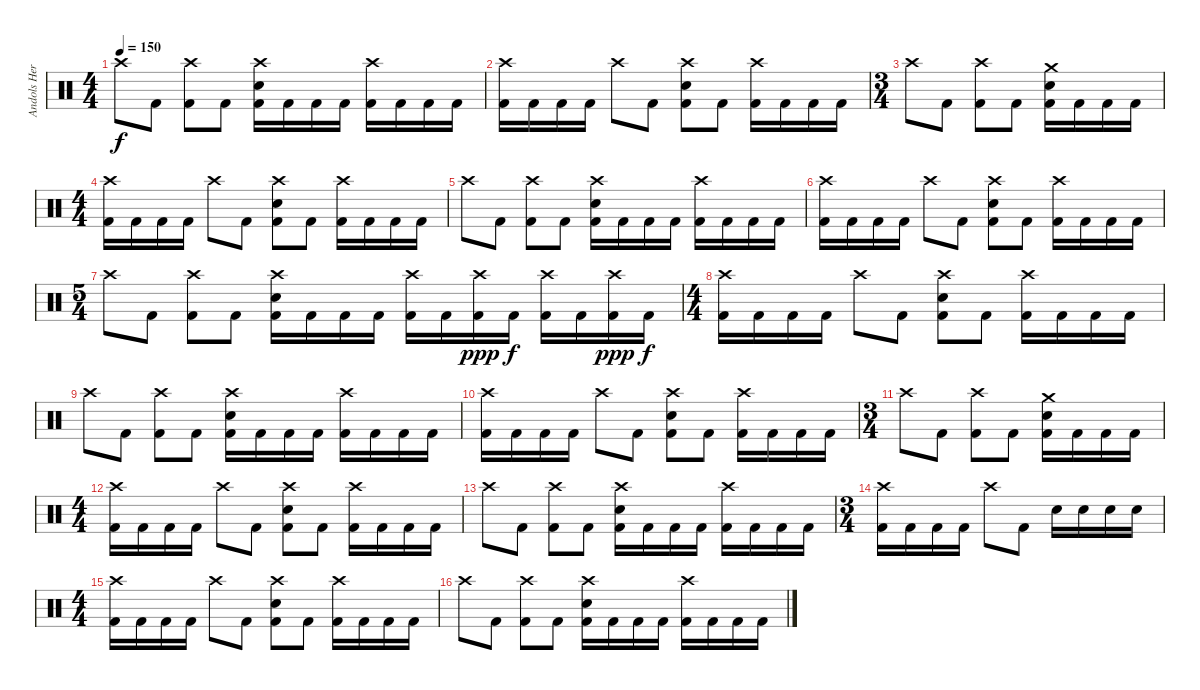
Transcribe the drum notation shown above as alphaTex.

\track ("Andols Herrick" "Andols Her") {instrument percussion}
\staff {score}
\articulation defaults
\ts (4 4)
\tempo 150
\clef neutral
\ks c "Crash high (hit)".8{dy f} "Kick (hit) 2".8
("Crash high (hit)" "Kick (hit) 2").8 "Kick (hit) 2".8 ("Crash high (hit)" "Electric Snare (hit)" "Kick (hit) 2").16 "Kick (hit) 2".16 "Kick (hit) 2".16 "Kick (hit) 2".16 ("Crash high (hit)" "Kick (hit) 2").16 "Kick (hit) 2".16 "Kick (hit) 2".16 "Kick (hit) 2".16 |
("Crash high (hit)" "Kick (hit) 2").16 "Kick (hit) 2".16 "Kick (hit) 2".16 "Kick (hit) 2".16 "Crash high (hit)".8 "Kick (hit) 2".8 ("Crash high (hit)" "Electric Snare (hit)" "Kick (hit) 2").8 "Kick (hit) 2".8 ("Crash high (hit)" "Kick (hit) 2").16 "Kick (hit) 2".16 "Kick (hit) 2".16 "Kick (hit) 2".16 |
\ts (3 4)
"Crash high (hit)".8 "Kick (hit) 2".8 ("Crash high (hit)" "Kick (hit) 2").8 "Kick (hit) 2".8 ("Crash medium (hit)" "Electric Snare (hit)" "Kick (hit) 2").16 "Kick (hit) 2".16 "Kick (hit) 2".16 "Kick (hit) 2".16 |
\ts (4 4)
("Crash high (hit)" "Kick (hit) 2").16 "Kick (hit) 2".16 "Kick (hit) 2".16 "Kick (hit) 2".16 "Crash high (hit)".8 "Kick (hit) 2".8 ("Crash high (hit)" "Electric Snare (hit)" "Kick (hit) 2").8 "Kick (hit) 2".8 ("Crash high (hit)" "Kick (hit) 2").16 "Kick (hit) 2".16 "Kick (hit) 2".16 "Kick (hit) 2".16 |
"Crash high (hit)".8 "Kick (hit) 2".8 ("Crash high (hit)" "Kick (hit) 2").8 "Kick (hit) 2".8 ("Crash high (hit)" "Electric Snare (hit)" "Kick (hit) 2").16 "Kick (hit) 2".16 "Kick (hit) 2".16 "Kick (hit) 2".16 ("Crash high (hit)" "Kick (hit) 2").16 "Kick (hit) 2".16 "Kick (hit) 2".16 "Kick (hit) 2".16 |
("Crash high (hit)" "Kick (hit) 2").16 "Kick (hit) 2".16 "Kick (hit) 2".16 "Kick (hit) 2".16 "Crash high (hit)".8 "Kick (hit) 2".8 ("Crash high (hit)" "Electric Snare (hit)" "Kick (hit) 2").8 "Kick (hit) 2".8 ("Crash high (hit)" "Kick (hit) 2").16 "Kick (hit) 2".16 "Kick (hit) 2".16 "Kick (hit) 2".16 |
\ts (5 4)
"Crash high (hit)".8 "Kick (hit) 2".8 ("Crash high (hit)" "Kick (hit) 2").8 "Kick (hit) 2".8 ("Crash high (hit)" "Electric Snare (hit)" "Kick (hit) 2").16 "Kick (hit) 2".16 "Kick (hit) 2".16 "Kick (hit) 2".16 ("Crash high (hit)" "Kick (hit) 2").16 "Kick (hit) 2".16 ("Crash high (hit)" "Kick (hit) 2").16{dy ppp} "Kick (hit) 2".16{dy f} ("Crash high (hit)" "Kick (hit) 2").16 "Kick (hit) 2".16 ("Crash high (hit)" "Kick (hit) 2").16{dy ppp} "Kick (hit) 2".16{dy f} |
\ts (4 4)
("Crash high (hit)" "Kick (hit) 2").16 "Kick (hit) 2".16 "Kick (hit) 2".16 "Kick (hit) 2".16 "Crash high (hit)".8 "Kick (hit) 2".8 ("Crash high (hit)" "Electric Snare (hit)" "Kick (hit) 2").8 "Kick (hit) 2".8 ("Crash high (hit)" "Kick (hit) 2").16 "Kick (hit) 2".16 "Kick (hit) 2".16 "Kick (hit) 2".16 |
"Crash high (hit)".8 "Kick (hit) 2".8 ("Crash high (hit)" "Kick (hit) 2").8 "Kick (hit) 2".8 ("Crash high (hit)" "Electric Snare (hit)" "Kick (hit) 2").16 "Kick (hit) 2".16 "Kick (hit) 2".16 "Kick (hit) 2".16 ("Crash high (hit)" "Kick (hit) 2").16 "Kick (hit) 2".16 "Kick (hit) 2".16 "Kick (hit) 2".16 |
("Crash high (hit)" "Kick (hit) 2").16 "Kick (hit) 2".16 "Kick (hit) 2".16 "Kick (hit) 2".16 "Crash high (hit)".8 "Kick (hit) 2".8 ("Crash high (hit)" "Electric Snare (hit)" "Kick (hit) 2").8 "Kick (hit) 2".8 ("Crash high (hit)" "Kick (hit) 2").16 "Kick (hit) 2".16 "Kick (hit) 2".16 "Kick (hit) 2".16 |
\ts (3 4)
"Crash high (hit)".8 "Kick (hit) 2".8 ("Crash high (hit)" "Kick (hit) 2").8 "Kick (hit) 2".8 ("Crash medium (hit)" "Electric Snare (hit)" "Kick (hit) 2").16 "Kick (hit) 2".16 "Kick (hit) 2".16 "Kick (hit) 2".16 |
\ts (4 4)
("Crash high (hit)" "Kick (hit) 2").16 "Kick (hit) 2".16 "Kick (hit) 2".16 "Kick (hit) 2".16 "Crash high (hit)".8 "Kick (hit) 2".8 ("Crash high (hit)" "Electric Snare (hit)" "Kick (hit) 2").8 "Kick (hit) 2".8 ("Crash high (hit)" "Kick (hit) 2").16 "Kick (hit) 2".16 "Kick (hit) 2".16 "Kick (hit) 2".16 |
"Crash high (hit)".8 "Kick (hit) 2".8 ("Crash high (hit)" "Kick (hit) 2").8 "Kick (hit) 2".8 ("Crash high (hit)" "Electric Snare (hit)" "Kick (hit) 2").16 "Kick (hit) 2".16 "Kick (hit) 2".16 "Kick (hit) 2".16 ("Crash high (hit)" "Kick (hit) 2").16 "Kick (hit) 2".16 "Kick (hit) 2".16 "Kick (hit) 2".16 |
\ts (3 4)
("Crash high (hit)" "Kick (hit) 2").16 "Kick (hit) 2".16 "Kick (hit) 2".16 "Kick (hit) 2".16 "Crash high (hit)".8 "Kick (hit) 2".8 "Electric Snare (hit)".16 "Electric Snare (hit)".16 "Electric Snare (hit)".16 "Electric Snare (hit)".16 |
\ts (4 4)
("Crash high (hit)" "Kick (hit) 2").16 "Kick (hit) 2".16 "Kick (hit) 2".16 "Kick (hit) 2".16 "Crash high (hit)".8 "Kick (hit) 2".8 ("Crash high (hit)" "Electric Snare (hit)" "Kick (hit) 2").8 "Kick (hit) 2".8 ("Crash high (hit)" "Kick (hit) 2").16 "Kick (hit) 2".16 "Kick (hit) 2".16 "Kick (hit) 2".16 |
"Crash high (hit)".8 "Kick (hit) 2".8 ("Crash high (hit)" "Kick (hit) 2").8 "Kick (hit) 2".8 ("Crash high (hit)" "Electric Snare (hit)" "Kick (hit) 2").16 "Kick (hit) 2".16 "Kick (hit) 2".16 "Kick (hit) 2".16 ("Crash high (hit)" "Kick (hit) 2").16 "Kick (hit) 2".16 "Kick (hit) 2".16 "Kick (hit) 2".16
